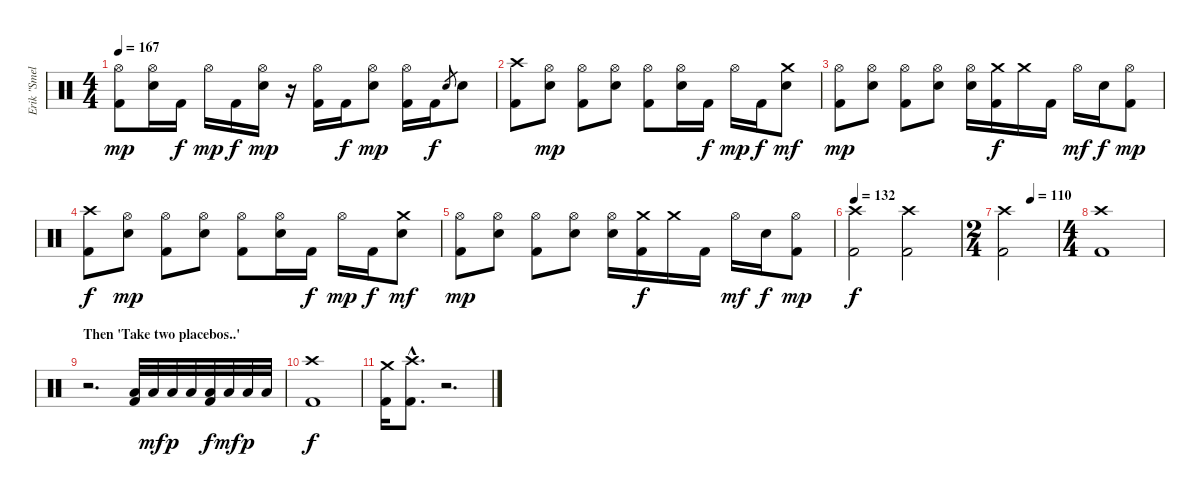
\track ("Erik \"Smelly\" - Drums" "Erik \"Smel") {instrument percussion}
\staff {score}
\articulation defaults
\ts (4 4)
\tempo 167
\clef neutral
\ks c
("Hi-Hat (open)" "Kick (hit) 2").8{dy mp} ("Hi-Hat (open)" "Electric Snare (hit)").16 "Kick (hit) 2".16{dy f} "Hi-Hat (open)".16{dy mp} "Kick (hit) 2".16{dy f} ("Hi-Hat (open)" "Electric Snare (hit)").16{dy mp} r.16 ("Hi-Hat (open)" "Kick (hit) 2").16 "Kick (hit) 2".16{dy f} ("Hi-Hat (open)" "Electric Snare (hit)").8{dy mp} ("Hi-Hat (open)" "Kick (hit) 2").16 "Kick (hit) 2".16{dy f} "Electric Snare (hit)".8{gr} "Electric Snare (hit)".8 |
("Crash high (hit)" "Kick (hit) 2").8 ("Hi-Hat (open)" "Electric Snare (hit)").8{dy mp} ("Hi-Hat (open)" "Kick (hit) 2").8 ("Hi-Hat (open)" "Electric Snare (hit)").8 ("Hi-Hat (open)" "Kick (hit) 2").8 ("Hi-Hat (open)" "Electric Snare (hit)").16 "Kick (hit) 2".16{dy f} "Hi-Hat (open)".16{dy mp} "Kick (hit) 2".16{dy f} ("Crash medium (hit)" "Electric Snare (hit)").8{dy mf} |
("Hi-Hat (open)" "Kick (hit) 2").8{dy mp} ("Hi-Hat (open)" "Electric Snare (hit)").8 ("Hi-Hat (open)" "Kick (hit) 2").8 ("Hi-Hat (open)" "Electric Snare (hit)").8 ("Hi-Hat (open)" "Electric Snare (hit)").16 ("Crash medium (hit)" "Kick (hit) 2").16{dy f} "Crash medium (hit)".16 "Kick (hit) 2".16 "Hi-Hat (open)".16{dy mf} "Electric Snare (hit)".16{dy f} ("Hi-Hat (open)" "Kick (hit) 2").8{dy mp} |
("Crash high (hit)" "Kick (hit) 2").8{dy f} ("Hi-Hat (open)" "Electric Snare (hit)").8{dy mp} ("Hi-Hat (open)" "Kick (hit) 2").8 ("Hi-Hat (open)" "Electric Snare (hit)").8 ("Hi-Hat (open)" "Kick (hit) 2").8 ("Hi-Hat (open)" "Electric Snare (hit)").16 "Kick (hit) 2".16{dy f} "Hi-Hat (open)".16{dy mp} "Kick (hit) 2".16{dy f} ("Crash medium (hit)" "Electric Snare (hit)").8{dy mf} |
("Hi-Hat (open)" "Kick (hit) 2").8{dy mp} ("Hi-Hat (open)" "Electric Snare (hit)").8 ("Hi-Hat (open)" "Kick (hit) 2").8 ("Hi-Hat (open)" "Electric Snare (hit)").8 ("Hi-Hat (open)" "Electric Snare (hit)").16 ("Crash medium (hit)" "Kick (hit) 2").16{dy f} "Crash medium (hit)".16 "Kick (hit) 2".16 "Hi-Hat (open)".16{dy mf} "Electric Snare (hit)".16{dy f} ("Hi-Hat (open)" "Kick (hit) 2").8{dy mp} |
\tempo 132
("Crash high (hit)" "Kick (hit) 2").2{dy f} ("Crash high (hit)" "Kick (hit) 2").2 |
\ts (2 4)
\tempo (110 0.5)
("Crash high (hit)" "Kick (hit) 2").2 |
\ts (4 4)
("Crash high (hit)" "Kick (hit) 2").1 |
\section ("" "Then 'Take two placebos..'")
r.2{d} ("Low Tom (hit)" "Kick (hit) 2").32 "Low Tom (hit)".32{dy mf} "Low Tom (hit)".32{dy p} "Low Tom (hit)".32 ("Low Tom (hit)" "Kick (hit) 2").32{dy f} "Low Tom (hit)".32{dy mf} "Low Tom (hit)".32{dy p} "Low Tom (hit)".32 |
("Crash high (hit)" "Kick (hit) 2").1{dy f} |
("Crash medium (hit)" "Kick (hit) 2").16 ("Crash high (hit)"{hac} "Kick (hit) 2"{hac}).8{d} r.2{d}
